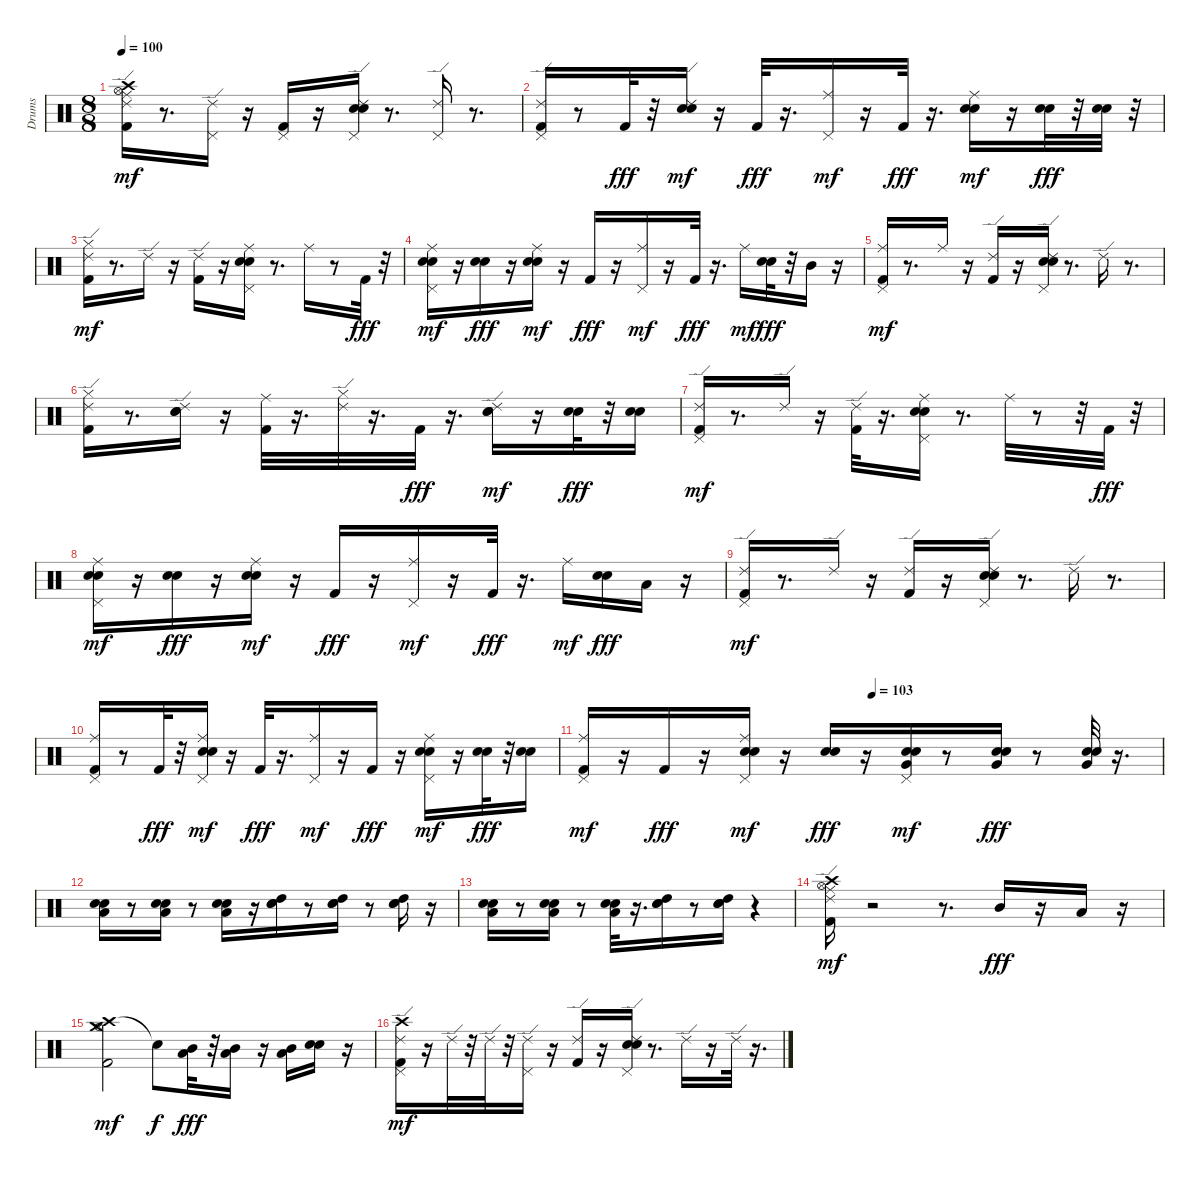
\track ("Drums" "Drums") {instrument percussion}
\staff {score}
\articulation defaults
\ts (8 8)
\tempo 100
\clef neutral
\ks c
("Crash high (hit)" "Kick (hit) 2" "Ride (middle)" "Hi-Hat (open)" "Ride (edge) 2").16{dy mf} r.8{d} ("Pedal Hi-Hat (hit)" "Ride (edge) 2").16 r.16 ("Kick (hit) 2" "Pedal Hi-Hat (hit)").16 r.16 ("Electric Snare (hit)" "Snare (hit) 2" "Pedal Hi-Hat (hit)" "Ride (edge) 2").16 r.8{d} ("Pedal Hi-Hat (hit)" "Ride (edge) 2").16 r.8{d} |
("Kick (hit) 2" "Pedal Hi-Hat (hit)" "Ride (edge) 2").16 r.8 "Kick (hit) 2".32{dy fff} r.32 ("Electric Snare (hit)" "Snare (hit) 2" "Ride (edge) 2").16{dy mf} r.16 "Kick (hit) 2".32{dy fff} r.16{d} ("Pedal Hi-Hat (hit)" "Ride (middle)").16{dy mf} r.16 "Kick (hit) 2".32{dy fff} r.16{d} ("Electric Snare (hit)" "Snare (hit) 2" "Ride (middle)").16{dy mf} r.16 ("Electric Snare (hit)" "Snare (hit) 2").32{dy fff} r.32 ("Electric Snare (hit)" "Snare (hit) 2").32 r.32 |
("Kick (hit) 2" "Hi-Hat (closed)" "Ride (edge) 2").16{dy mf} r.8{d} "Ride (edge) 2".16 r.16 ("Kick (hit) 2" "Ride (edge) 2").16 r.16 ("Electric Snare (hit)" "Snare (hit) 2" "Pedal Hi-Hat (hit)" "Ride (middle)").16 r.8{d} "Ride (middle)".16 r.8 "Kick (hit) 2".32{dy fff} r.32 |
("Electric Snare (hit)" "Snare (hit) 2" "Pedal Hi-Hat (hit)" "Ride (middle)").16{dy mf} r.16 ("Electric Snare (hit)" "Snare (hit) 2").16{dy fff} r.16 ("Electric Snare (hit)" "Snare (hit) 2" "Ride (middle)").16{dy mf} r.16 "Kick (hit) 2".16{dy fff} r.16 ("Pedal Hi-Hat (hit)" "Ride (middle)").16{dy mf} r.16 "Kick (hit) 2".32{dy fff} r.16{d} "Ride (middle)".16{dy mf} ("Electric Snare (hit)" "Snare (hit) 2").32{dy fff} r.32 "Mid Tom (hit)".16 r.16 |
("Kick (hit) 2" "Pedal Hi-Hat (hit)" "Ride (middle)").16{dy mf} r.8{d} "Ride (middle)".16 r.16 ("Kick (hit) 2" "Ride (edge) 2").16 r.16 ("Electric Snare (hit)" "Snare (hit) 2" "Pedal Hi-Hat (hit)" "Ride (edge) 2").16 r.8{d} "Ride (edge) 2".16 r.8{d} |
("Kick (hit) 2" "Hi-Hat (closed)" "Ride (edge) 2").16 r.8{d} ("Electric Snare (hit)" "Snare (hit) 2" "Ride (edge) 2").16 r.16 ("Kick (hit) 2" "Ride (middle)").32 r.16{d} ("Hi-Hat (closed)" "Ride (edge) 2").32 r.16{d} "Kick (hit) 2".32{dy fff} r.16{d} ("Electric Snare (hit)" "Snare (hit) 2" "Ride (edge) 2").16{dy mf} r.16 ("Electric Snare (hit)" "Snare (hit) 2").32{dy fff} r.32 ("Electric Snare (hit)" "Snare (hit) 2").16 |
("Kick (hit) 2" "Pedal Hi-Hat (hit)" "Ride (edge) 2").16{dy mf} r.8{d} "Ride (edge) 2".16 r.16 ("Kick (hit) 2" "Ride (edge) 2").32 r.16{d} ("Electric Snare (hit)" "Snare (hit) 2" "Pedal Hi-Hat (hit)" "Ride (middle)").16 r.8{d} "Ride (middle)".32 r.8 r.32 "Kick (hit) 2".32{dy fff} r.32 |
("Electric Snare (hit)" "Snare (hit) 2" "Pedal Hi-Hat (hit)" "Ride (middle)").16{dy mf} r.16 ("Electric Snare (hit)" "Snare (hit) 2").16{dy fff} r.16 ("Electric Snare (hit)" "Snare (hit) 2" "Ride (middle)").16{dy mf} r.16 "Kick (hit) 2".16{dy fff} r.16 ("Pedal Hi-Hat (hit)" "Ride (middle)").16{dy mf} r.16 "Kick (hit) 2".32{dy fff} r.16{d} "Ride (middle)".16{dy mf} ("Electric Snare (hit)" "Snare (hit) 2").16{dy fff} "Low Tom (hit)".16 r.16 |
("Kick (hit) 2" "Pedal Hi-Hat (hit)" "Ride (edge) 2").16{dy mf} r.8{d} "Ride (edge) 2".16 r.16 ("Kick (hit) 2" "Ride (edge) 2").16 r.16 ("Electric Snare (hit)" "Snare (hit) 2" "Pedal Hi-Hat (hit)" "Ride (edge) 2").16 r.8{d} "Ride (edge) 2".16 r.8{d} |
("Kick (hit) 2" "Pedal Hi-Hat (hit)" "Ride (middle)").16 r.8 "Kick (hit) 2".32{dy fff} r.32 ("Electric Snare (hit)" "Snare (hit) 2" "Pedal Hi-Hat (hit)" "Ride (middle)").16{dy mf} r.16 "Kick (hit) 2".32{dy fff} r.16{d} ("Pedal Hi-Hat (hit)" "Ride (middle)").16{dy mf} r.16 "Kick (hit) 2".16{dy fff} r.16 ("Electric Snare (hit)" "Snare (hit) 2" "Pedal Hi-Hat (hit)" "Ride (middle)").16{dy mf} r.16 ("Electric Snare (hit)" "Snare (hit) 2").32{dy fff} r.32 ("Electric Snare (hit)" "Snare (hit) 2").16 |
\tempo (103 0.5)
("Kick (hit) 2" "Pedal Hi-Hat (hit)" "Ride (middle)").16{dy mf} r.16 "Kick (hit) 2".16{dy fff} r.16 ("Electric Snare (hit)" "Snare (hit) 2" "Pedal Hi-Hat (hit)" "Ride (middle)").16{dy mf} r.16 ("Electric Snare (hit)" "Snare (hit) 2").16{dy fff} r.16 ("Electric Snare (hit)" "Very Low Tom (hit)" "Snare (hit) 2" "Pedal Hi-Hat (hit)").16{dy mf volume 16} r.8 ("Electric Snare (hit)" "Snare (hit) 2" "Very Low Tom (hit)").16{dy fff} r.8 ("Electric Snare (hit)" "Very Low Tom (hit)" "Snare (hit) 2").32 r.16{d} |
("Electric Snare (hit)" "Snare (hit) 2" "Low Tom (hit)").16 r.8 ("Electric Snare (hit)" "Snare (hit) 2" "Low Tom (hit)").16 r.8 ("Electric Snare (hit)" "Snare (hit) 2" "Low Tom (hit)").16 r.16 ("Electric Snare (hit)" "Snare (hit) 2" "High Tom (hit)").16 r.8 ("Electric Snare (hit)" "High Tom (hit)" "Snare (hit) 2").16 r.8 ("Electric Snare (hit)" "Snare (hit) 2" "High Tom (hit)").16 r.16 |
("Electric Snare (hit)" "Snare (hit) 2" "Low Tom (hit)").16 r.8 ("Electric Snare (hit)" "Low Tom (hit)" "Snare (hit) 2").16 r.8 ("Electric Snare (hit)" "Snare (hit) 2" "Low Tom (hit)").32 r.16{d} ("Electric Snare (hit)" "Snare (hit) 2" "High Tom (hit)").16 r.8 ("Electric Snare (hit)" "High Tom (hit)" "Snare (hit) 2").16 r.4 |
("Kick (hit) 2" "Crash high (hit)" "Hi-Hat (open)" "Ride (edge) 2" "Ride (middle)").16{dy mf} r.2 r.8{d} "Mid Tom (hit)".16{dy fff} r.16 "Low Tom (hit)".16 r.16 |
("Crash high (hit)" "Kick (hit) 2" "Hi-Hat (open)" "Crash medium (hit)").2{dy mf} "Snare (hit)"{t}.8{dy f} ("Low Tom (hit)" "Mid Tom (hit)").32{dy fff} r.32 ("Low Tom (hit)" "Mid Tom (hit)").16 r.16 ("Mid Tom (hit)" "Low Tom (hit)").16 ("Electric Snare (hit)" "Snare (hit) 2").16 r.16 |
("Kick (hit) 2" "Crash high (hit)" "Pedal Hi-Hat (hit)" "Ride (edge) 2").16{dy mf} r.16 "Ride (edge) 2".32 r.32 "Ride (edge) 2".32 r.32 ("Pedal Hi-Hat (hit)" "Ride (edge) 2").16 r.16 ("Kick (hit) 2" "Ride (edge) 2").16 r.16 ("Electric Snare (hit)" "Snare (hit) 2" "Pedal Hi-Hat (hit)" "Ride (edge) 2").16 r.8{d} "Ride (edge) 2".16 r.16 "Ride (edge) 2".32 r.16{d}
